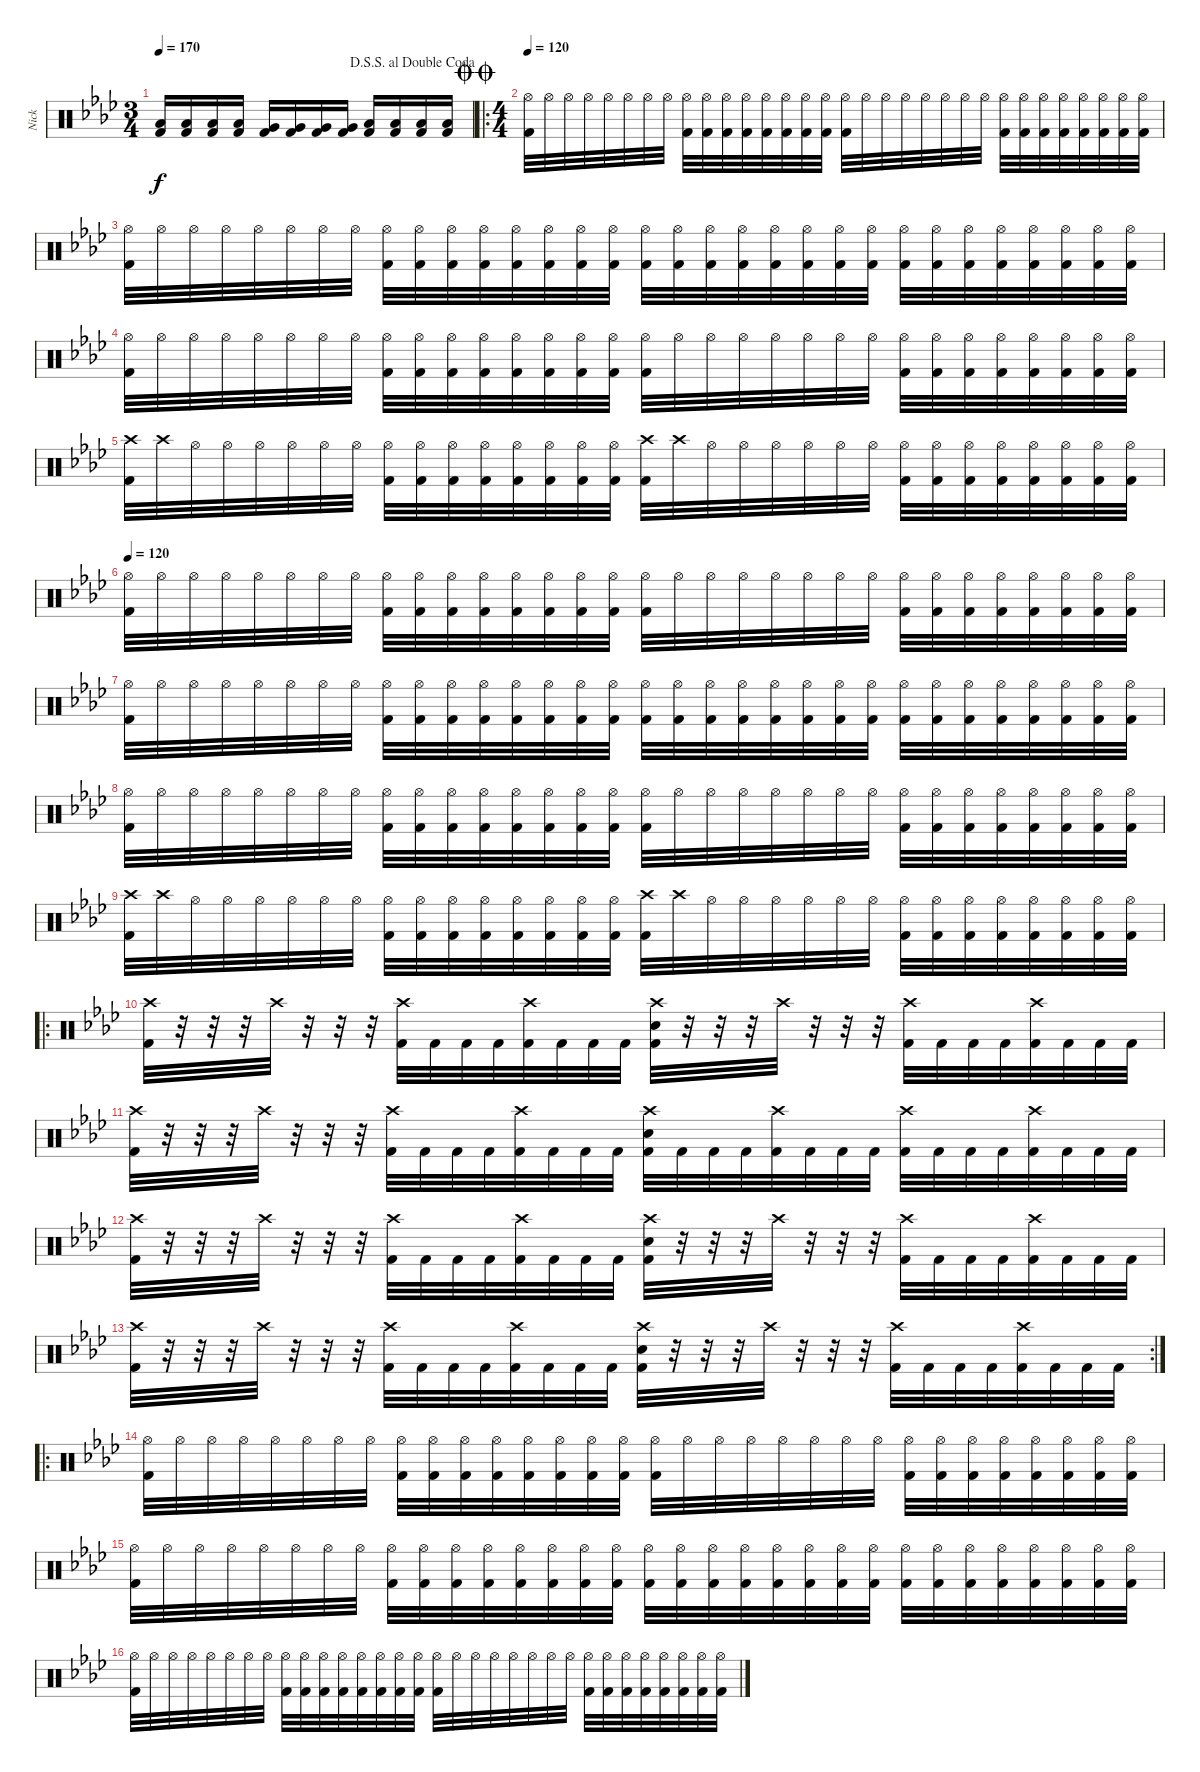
\track ("Nick" "Nick") {instrument percussion}
\staff {score}
\articulation defaults
\ts (3 4)
\jump dalsegnosegnoaldoublecoda
\tempo 170
\clef neutral
\ks ab
("Low Tom (hit)" "Kick (hit) 2").16{dy f} ("Low Tom (hit)" "Kick (hit) 2").16 ("Low Tom (hit)" "Kick (hit) 2").16 ("Low Tom (hit)" "Kick (hit) 2").16 ("Very Low Tom (hit)" "Kick (hit) 2").16 ("Very Low Tom (hit)" "Kick (hit) 2").16 ("Very Low Tom (hit)" "Kick (hit) 2").16 ("Very Low Tom (hit)" "Kick (hit) 2").16 ("Low Floor Tom (hit)" "Kick (hit) 2").16 ("Low Floor Tom (hit)" "Kick (hit) 2").16 ("Low Floor Tom (hit)" "Kick (hit) 2").16 ("Low Floor Tom (hit)" "Kick (hit) 2").16 |
\ro
\ts (4 4)
\jump doublecoda
\tempo 130
\tempo 120
("Hi-Hat (open)" "Kick (hit) 2").32 "Hi-Hat (open)".32 "Hi-Hat (open)".32 "Hi-Hat (open)".32 "Hi-Hat (open)".32 "Hi-Hat (open)".32 "Hi-Hat (open)".32 "Hi-Hat (open)".32 ("Hi-Hat (open)" "Kick (hit) 2").32 ("Hi-Hat (open)" "Kick (hit) 2").32 ("Hi-Hat (open)" "Kick (hit) 2").32 ("Hi-Hat (open)" "Kick (hit) 2").32 ("Hi-Hat (open)" "Kick (hit) 2").32 ("Hi-Hat (open)" "Kick (hit) 2").32 ("Hi-Hat (open)" "Kick (hit) 2").32 ("Hi-Hat (open)" "Kick (hit) 2").32 ("Hi-Hat (open)" "Kick (hit) 2").32 "Hi-Hat (open)".32 "Hi-Hat (open)".32 "Hi-Hat (open)".32 "Hi-Hat (open)".32 "Hi-Hat (open)".32 "Hi-Hat (open)".32 "Hi-Hat (open)".32 ("Hi-Hat (open)" "Kick (hit) 2").32 ("Hi-Hat (open)" "Kick (hit) 2").32 ("Hi-Hat (open)" "Kick (hit) 2").32 ("Hi-Hat (open)" "Kick (hit) 2").32 ("Hi-Hat (open)" "Kick (hit) 2").32 ("Hi-Hat (open)" "Kick (hit) 2").32 ("Hi-Hat (open)" "Kick (hit) 2").32 ("Hi-Hat (open)" "Kick (hit) 2").32 |
("Hi-Hat (open)" "Kick (hit) 2").32 "Hi-Hat (open)".32 "Hi-Hat (open)".32 "Hi-Hat (open)".32 "Hi-Hat (open)".32 "Hi-Hat (open)".32 "Hi-Hat (open)".32 "Hi-Hat (open)".32 ("Hi-Hat (open)" "Kick (hit) 2").32 ("Hi-Hat (open)" "Kick (hit) 2").32 ("Hi-Hat (open)" "Kick (hit) 2").32 ("Hi-Hat (open)" "Kick (hit) 2").32 ("Hi-Hat (open)" "Kick (hit) 2").32 ("Hi-Hat (open)" "Kick (hit) 2").32 ("Hi-Hat (open)" "Kick (hit) 2").32 ("Hi-Hat (open)" "Kick (hit) 2").32 ("Hi-Hat (open)" "Kick (hit) 2").32 ("Hi-Hat (open)" "Kick (hit) 2").32 ("Hi-Hat (open)" "Kick (hit) 2").32 ("Hi-Hat (open)" "Kick (hit) 2").32 ("Hi-Hat (open)" "Kick (hit) 2").32 ("Hi-Hat (open)" "Kick (hit) 2").32 ("Hi-Hat (open)" "Kick (hit) 2").32 ("Hi-Hat (open)" "Kick (hit) 2").32 ("Hi-Hat (open)" "Kick (hit) 2").32 ("Hi-Hat (open)" "Kick (hit) 2").32 ("Hi-Hat (open)" "Kick (hit) 2").32 ("Hi-Hat (open)" "Kick (hit) 2").32 ("Hi-Hat (open)" "Kick (hit) 2").32 ("Hi-Hat (open)" "Kick (hit) 2").32 ("Hi-Hat (open)" "Kick (hit) 2").32 ("Hi-Hat (open)" "Kick (hit) 2").32 |
("Hi-Hat (open)" "Kick (hit) 2").32 "Hi-Hat (open)".32 "Hi-Hat (open)".32 "Hi-Hat (open)".32 "Hi-Hat (open)".32 "Hi-Hat (open)".32 "Hi-Hat (open)".32 "Hi-Hat (open)".32 ("Hi-Hat (open)" "Kick (hit) 2").32 ("Hi-Hat (open)" "Kick (hit) 2").32 ("Hi-Hat (open)" "Kick (hit) 2").32 ("Hi-Hat (open)" "Kick (hit) 2").32 ("Hi-Hat (open)" "Kick (hit) 2").32 ("Hi-Hat (open)" "Kick (hit) 2").32 ("Hi-Hat (open)" "Kick (hit) 2").32 ("Hi-Hat (open)" "Kick (hit) 2").32 ("Hi-Hat (open)" "Kick (hit) 2").32 "Hi-Hat (open)".32 "Hi-Hat (open)".32 "Hi-Hat (open)".32 "Hi-Hat (open)".32 "Hi-Hat (open)".32 "Hi-Hat (open)".32 "Hi-Hat (open)".32 ("Hi-Hat (open)" "Kick (hit) 2").32 ("Hi-Hat (open)" "Kick (hit) 2").32 ("Hi-Hat (open)" "Kick (hit) 2").32 ("Hi-Hat (open)" "Kick (hit) 2").32 ("Hi-Hat (open)" "Kick (hit) 2").32 ("Hi-Hat (open)" "Kick (hit) 2").32 ("Hi-Hat (open)" "Kick (hit) 2").32 ("Hi-Hat (open)" "Kick (hit) 2").32 |
("Crash high (hit)" "Kick (hit) 2").32 "Crash high (hit)".32 "Hi-Hat (open)".32 "Hi-Hat (open)".32 "Hi-Hat (open)".32 "Hi-Hat (open)".32 "Hi-Hat (open)".32 "Hi-Hat (open)".32 ("Hi-Hat (open)" "Kick (hit) 2").32 ("Hi-Hat (open)" "Kick (hit) 2").32 ("Hi-Hat (open)" "Kick (hit) 2").32 ("Hi-Hat (open)" "Kick (hit) 2").32 ("Hi-Hat (open)" "Kick (hit) 2").32 ("Hi-Hat (open)" "Kick (hit) 2").32 ("Hi-Hat (open)" "Kick (hit) 2").32 ("Hi-Hat (open)" "Kick (hit) 2").32 ("Crash high (hit)" "Kick (hit) 2").32 "Crash high (hit)".32 "Hi-Hat (open)".32 "Hi-Hat (open)".32 "Hi-Hat (open)".32 "Hi-Hat (open)".32 "Hi-Hat (open)".32 "Hi-Hat (open)".32 ("Hi-Hat (open)" "Kick (hit) 2").32 ("Hi-Hat (open)" "Kick (hit) 2").32 ("Hi-Hat (open)" "Kick (hit) 2").32 ("Hi-Hat (open)" "Kick (hit) 2").32 ("Hi-Hat (open)" "Kick (hit) 2").32 ("Hi-Hat (open)" "Kick (hit) 2").32 ("Hi-Hat (open)" "Kick (hit) 2").32 ("Hi-Hat (open)" "Kick (hit) 2").32 |
\tempo 130
\tempo 120
("Hi-Hat (open)" "Kick (hit) 2").32 "Hi-Hat (open)".32 "Hi-Hat (open)".32 "Hi-Hat (open)".32 "Hi-Hat (open)".32 "Hi-Hat (open)".32 "Hi-Hat (open)".32 "Hi-Hat (open)".32 ("Hi-Hat (open)" "Kick (hit) 2").32 ("Hi-Hat (open)" "Kick (hit) 2").32 ("Hi-Hat (open)" "Kick (hit) 2").32 ("Hi-Hat (open)" "Kick (hit) 2").32 ("Hi-Hat (open)" "Kick (hit) 2").32 ("Hi-Hat (open)" "Kick (hit) 2").32 ("Hi-Hat (open)" "Kick (hit) 2").32 ("Hi-Hat (open)" "Kick (hit) 2").32 ("Hi-Hat (open)" "Kick (hit) 2").32 "Hi-Hat (open)".32 "Hi-Hat (open)".32 "Hi-Hat (open)".32 "Hi-Hat (open)".32 "Hi-Hat (open)".32 "Hi-Hat (open)".32 "Hi-Hat (open)".32 ("Hi-Hat (open)" "Kick (hit) 2").32 ("Hi-Hat (open)" "Kick (hit) 2").32 ("Hi-Hat (open)" "Kick (hit) 2").32 ("Hi-Hat (open)" "Kick (hit) 2").32 ("Hi-Hat (open)" "Kick (hit) 2").32 ("Hi-Hat (open)" "Kick (hit) 2").32 ("Hi-Hat (open)" "Kick (hit) 2").32 ("Hi-Hat (open)" "Kick (hit) 2").32 |
("Hi-Hat (open)" "Kick (hit) 2").32 "Hi-Hat (open)".32 "Hi-Hat (open)".32 "Hi-Hat (open)".32 "Hi-Hat (open)".32 "Hi-Hat (open)".32 "Hi-Hat (open)".32 "Hi-Hat (open)".32 ("Hi-Hat (open)" "Kick (hit) 2").32 ("Hi-Hat (open)" "Kick (hit) 2").32 ("Hi-Hat (open)" "Kick (hit) 2").32 ("Hi-Hat (open)" "Kick (hit) 2").32 ("Hi-Hat (open)" "Kick (hit) 2").32 ("Hi-Hat (open)" "Kick (hit) 2").32 ("Hi-Hat (open)" "Kick (hit) 2").32 ("Hi-Hat (open)" "Kick (hit) 2").32 ("Hi-Hat (open)" "Kick (hit) 2").32 ("Hi-Hat (open)" "Kick (hit) 2").32 ("Hi-Hat (open)" "Kick (hit) 2").32 ("Hi-Hat (open)" "Kick (hit) 2").32 ("Hi-Hat (open)" "Kick (hit) 2").32 ("Hi-Hat (open)" "Kick (hit) 2").32 ("Hi-Hat (open)" "Kick (hit) 2").32 ("Hi-Hat (open)" "Kick (hit) 2").32 ("Hi-Hat (open)" "Kick (hit) 2").32 ("Hi-Hat (open)" "Kick (hit) 2").32 ("Hi-Hat (open)" "Kick (hit) 2").32 ("Hi-Hat (open)" "Kick (hit) 2").32 ("Hi-Hat (open)" "Kick (hit) 2").32 ("Hi-Hat (open)" "Kick (hit) 2").32 ("Hi-Hat (open)" "Kick (hit) 2").32 ("Hi-Hat (open)" "Kick (hit) 2").32 |
("Hi-Hat (open)" "Kick (hit) 2").32 "Hi-Hat (open)".32 "Hi-Hat (open)".32 "Hi-Hat (open)".32 "Hi-Hat (open)".32 "Hi-Hat (open)".32 "Hi-Hat (open)".32 "Hi-Hat (open)".32 ("Hi-Hat (open)" "Kick (hit) 2").32 ("Hi-Hat (open)" "Kick (hit) 2").32 ("Hi-Hat (open)" "Kick (hit) 2").32 ("Hi-Hat (open)" "Kick (hit) 2").32 ("Hi-Hat (open)" "Kick (hit) 2").32 ("Hi-Hat (open)" "Kick (hit) 2").32 ("Hi-Hat (open)" "Kick (hit) 2").32 ("Hi-Hat (open)" "Kick (hit) 2").32 ("Hi-Hat (open)" "Kick (hit) 2").32 "Hi-Hat (open)".32 "Hi-Hat (open)".32 "Hi-Hat (open)".32 "Hi-Hat (open)".32 "Hi-Hat (open)".32 "Hi-Hat (open)".32 "Hi-Hat (open)".32 ("Hi-Hat (open)" "Kick (hit) 2").32 ("Hi-Hat (open)" "Kick (hit) 2").32 ("Hi-Hat (open)" "Kick (hit) 2").32 ("Hi-Hat (open)" "Kick (hit) 2").32 ("Hi-Hat (open)" "Kick (hit) 2").32 ("Hi-Hat (open)" "Kick (hit) 2").32 ("Hi-Hat (open)" "Kick (hit) 2").32 ("Hi-Hat (open)" "Kick (hit) 2").32 |
("Crash high (hit)" "Kick (hit) 2").32 "Crash high (hit)".32 "Hi-Hat (open)".32 "Hi-Hat (open)".32 "Hi-Hat (open)".32 "Hi-Hat (open)".32 "Hi-Hat (open)".32 "Hi-Hat (open)".32 ("Hi-Hat (open)" "Kick (hit) 2").32 ("Hi-Hat (open)" "Kick (hit) 2").32 ("Hi-Hat (open)" "Kick (hit) 2").32 ("Hi-Hat (open)" "Kick (hit) 2").32 ("Hi-Hat (open)" "Kick (hit) 2").32 ("Hi-Hat (open)" "Kick (hit) 2").32 ("Hi-Hat (open)" "Kick (hit) 2").32 ("Hi-Hat (open)" "Kick (hit) 2").32 ("Crash high (hit)" "Kick (hit) 2").32 "Crash high (hit)".32 "Hi-Hat (open)".32 "Hi-Hat (open)".32 "Hi-Hat (open)".32 "Hi-Hat (open)".32 "Hi-Hat (open)".32 "Hi-Hat (open)".32 ("Hi-Hat (open)" "Kick (hit) 2").32 ("Hi-Hat (open)" "Kick (hit) 2").32 ("Hi-Hat (open)" "Kick (hit) 2").32 ("Hi-Hat (open)" "Kick (hit) 2").32 ("Hi-Hat (open)" "Kick (hit) 2").32 ("Hi-Hat (open)" "Kick (hit) 2").32 ("Hi-Hat (open)" "Kick (hit) 2").32 ("Hi-Hat (open)" "Kick (hit) 2").32 |
\ro
("Crash high (hit)" "Kick (hit) 2").32 r.32 r.32 r.32 "Crash high (hit)".32 r.32 r.32 r.32 ("Crash high (hit)" "Kick (hit) 2").32 "Kick (hit) 2".32 "Kick (hit) 2".32 "Kick (hit) 2".32 ("Crash high (hit)" "Kick (hit) 2").32 "Kick (hit) 2".32 "Kick (hit) 2".32 "Kick (hit) 2".32 ("Crash high (hit)" "Snare (hit) 2" "Kick (hit) 2").32 r.32 r.32 r.32 "Crash high (hit)".32 r.32 r.32 r.32 ("Crash high (hit)" "Kick (hit) 2").32 "Kick (hit) 2".32 "Kick (hit) 2".32 "Kick (hit) 2".32 ("Crash high (hit)" "Kick (hit) 2").32 "Kick (hit) 2".32 "Kick (hit) 2".32 "Kick (hit) 2".32 |
("Crash high (hit)" "Kick (hit) 2").32 r.32 r.32 r.32 "Crash high (hit)".32 r.32 r.32 r.32 ("Crash high (hit)" "Kick (hit) 2").32 "Kick (hit) 2".32 "Kick (hit) 2".32 "Kick (hit) 2".32 ("Crash high (hit)" "Kick (hit) 2").32 "Kick (hit) 2".32 "Kick (hit) 2".32 "Kick (hit) 2".32 ("Crash high (hit)" "Snare (hit) 2" "Kick (hit) 2").32 "Kick (hit) 2".32 "Kick (hit) 2".32 "Kick (hit) 2".32 ("Crash high (hit)" "Kick (hit) 2").32 "Kick (hit) 2".32 "Kick (hit) 2".32 "Kick (hit) 2".32 ("Crash high (hit)" "Kick (hit) 2").32 "Kick (hit) 2".32 "Kick (hit) 2".32 "Kick (hit) 2".32 ("Crash high (hit)" "Kick (hit) 2").32 "Kick (hit) 2".32 "Kick (hit) 2".32 "Kick (hit) 2".32 |
("Crash high (hit)" "Kick (hit) 2").32 r.32 r.32 r.32 "Crash high (hit)".32 r.32 r.32 r.32 ("Crash high (hit)" "Kick (hit) 2").32 "Kick (hit) 2".32 "Kick (hit) 2".32 "Kick (hit) 2".32 ("Crash high (hit)" "Kick (hit) 2").32 "Kick (hit) 2".32 "Kick (hit) 2".32 "Kick (hit) 2".32 ("Crash high (hit)" "Snare (hit) 2" "Kick (hit) 2").32 r.32 r.32 r.32 "Crash high (hit)".32 r.32 r.32 r.32 ("Crash high (hit)" "Kick (hit) 2").32 "Kick (hit) 2".32 "Kick (hit) 2".32 "Kick (hit) 2".32 ("Crash high (hit)" "Kick (hit) 2").32 "Kick (hit) 2".32 "Kick (hit) 2".32 "Kick (hit) 2".32 |
\rc 2
("Crash high (hit)" "Kick (hit) 2").32 r.32 r.32 r.32 "Crash high (hit)".32 r.32 r.32 r.32 ("Crash high (hit)" "Kick (hit) 2").32 "Kick (hit) 2".32 "Kick (hit) 2".32 "Kick (hit) 2".32 ("Crash high (hit)" "Kick (hit) 2").32 "Kick (hit) 2".32 "Kick (hit) 2".32 "Kick (hit) 2".32 ("Crash high (hit)" "Snare (hit) 2" "Kick (hit) 2").32 r.32 r.32 r.32 "Crash high (hit)".32 r.32 r.32 r.32 ("Crash high (hit)" "Kick (hit) 2").32 "Kick (hit) 2".32 "Kick (hit) 2".32 "Kick (hit) 2".32 ("Crash high (hit)" "Kick (hit) 2").32 "Kick (hit) 2".32 "Kick (hit) 2".32 "Kick (hit) 2".32 |
\ro
("Hi-Hat (open)" "Kick (hit) 2").32 "Hi-Hat (open)".32 "Hi-Hat (open)".32 "Hi-Hat (open)".32 "Hi-Hat (open)".32 "Hi-Hat (open)".32 "Hi-Hat (open)".32 "Hi-Hat (open)".32 ("Hi-Hat (open)" "Kick (hit) 2").32 ("Hi-Hat (open)" "Kick (hit) 2").32 ("Hi-Hat (open)" "Kick (hit) 2").32 ("Hi-Hat (open)" "Kick (hit) 2").32 ("Hi-Hat (open)" "Kick (hit) 2").32 ("Hi-Hat (open)" "Kick (hit) 2").32 ("Hi-Hat (open)" "Kick (hit) 2").32 ("Hi-Hat (open)" "Kick (hit) 2").32 ("Hi-Hat (open)" "Kick (hit) 2").32 "Hi-Hat (open)".32 "Hi-Hat (open)".32 "Hi-Hat (open)".32 "Hi-Hat (open)".32 "Hi-Hat (open)".32 "Hi-Hat (open)".32 "Hi-Hat (open)".32 ("Hi-Hat (open)" "Kick (hit) 2").32 ("Hi-Hat (open)" "Kick (hit) 2").32 ("Hi-Hat (open)" "Kick (hit) 2").32 ("Hi-Hat (open)" "Kick (hit) 2").32 ("Hi-Hat (open)" "Kick (hit) 2").32 ("Hi-Hat (open)" "Kick (hit) 2").32 ("Hi-Hat (open)" "Kick (hit) 2").32 ("Hi-Hat (open)" "Kick (hit) 2").32 |
("Hi-Hat (open)" "Kick (hit) 2").32 "Hi-Hat (open)".32 "Hi-Hat (open)".32 "Hi-Hat (open)".32 "Hi-Hat (open)".32 "Hi-Hat (open)".32 "Hi-Hat (open)".32 "Hi-Hat (open)".32 ("Hi-Hat (open)" "Kick (hit) 2").32 ("Hi-Hat (open)" "Kick (hit) 2").32 ("Hi-Hat (open)" "Kick (hit) 2").32 ("Hi-Hat (open)" "Kick (hit) 2").32 ("Hi-Hat (open)" "Kick (hit) 2").32 ("Hi-Hat (open)" "Kick (hit) 2").32 ("Hi-Hat (open)" "Kick (hit) 2").32 ("Hi-Hat (open)" "Kick (hit) 2").32 ("Hi-Hat (open)" "Kick (hit) 2").32 ("Hi-Hat (open)" "Kick (hit) 2").32 ("Hi-Hat (open)" "Kick (hit) 2").32 ("Hi-Hat (open)" "Kick (hit) 2").32 ("Hi-Hat (open)" "Kick (hit) 2").32 ("Hi-Hat (open)" "Kick (hit) 2").32 ("Hi-Hat (open)" "Kick (hit) 2").32 ("Hi-Hat (open)" "Kick (hit) 2").32 ("Hi-Hat (open)" "Kick (hit) 2").32 ("Hi-Hat (open)" "Kick (hit) 2").32 ("Hi-Hat (open)" "Kick (hit) 2").32 ("Hi-Hat (open)" "Kick (hit) 2").32 ("Hi-Hat (open)" "Kick (hit) 2").32 ("Hi-Hat (open)" "Kick (hit) 2").32 ("Hi-Hat (open)" "Kick (hit) 2").32 ("Hi-Hat (open)" "Kick (hit) 2").32 |
("Hi-Hat (open)" "Kick (hit) 2").32 "Hi-Hat (open)".32 "Hi-Hat (open)".32 "Hi-Hat (open)".32 "Hi-Hat (open)".32 "Hi-Hat (open)".32 "Hi-Hat (open)".32 "Hi-Hat (open)".32 ("Hi-Hat (open)" "Kick (hit) 2").32 ("Hi-Hat (open)" "Kick (hit) 2").32 ("Hi-Hat (open)" "Kick (hit) 2").32 ("Hi-Hat (open)" "Kick (hit) 2").32 ("Hi-Hat (open)" "Kick (hit) 2").32 ("Hi-Hat (open)" "Kick (hit) 2").32 ("Hi-Hat (open)" "Kick (hit) 2").32 ("Hi-Hat (open)" "Kick (hit) 2").32 ("Hi-Hat (open)" "Kick (hit) 2").32 "Hi-Hat (open)".32 "Hi-Hat (open)".32 "Hi-Hat (open)".32 "Hi-Hat (open)".32 "Hi-Hat (open)".32 "Hi-Hat (open)".32 "Hi-Hat (open)".32 ("Hi-Hat (open)" "Kick (hit) 2").32 ("Hi-Hat (open)" "Kick (hit) 2").32 ("Hi-Hat (open)" "Kick (hit) 2").32 ("Hi-Hat (open)" "Kick (hit) 2").32 ("Hi-Hat (open)" "Kick (hit) 2").32 ("Hi-Hat (open)" "Kick (hit) 2").32 ("Hi-Hat (open)" "Kick (hit) 2").32 ("Hi-Hat (open)" "Kick (hit) 2").32
